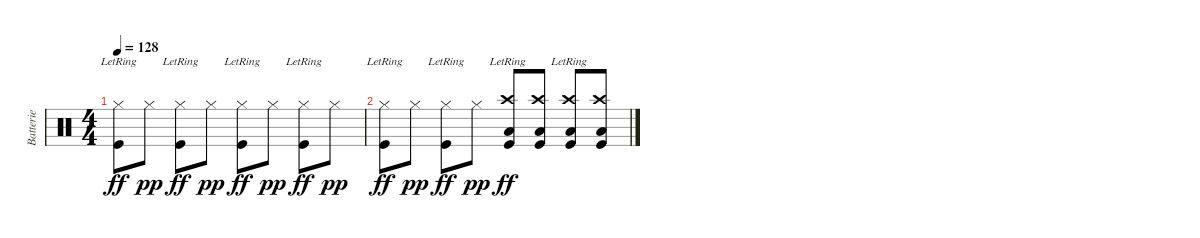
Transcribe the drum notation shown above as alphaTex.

\track ("Batterie" "Batterie") {instrument percussion}
\staff {score}
\articulation defaults
\ts (4 4)
\tempo 128
\clef neutral
\ks c
("Hi-Hat (closed)" "Kick (hit)"{lr}).8{dy ff} "Hi-Hat (closed)".8{dy pp} ("Hi-Hat (closed)" "Kick (hit)"{lr}).8{dy ff} "Hi-Hat (closed)".8{dy pp} ("Hi-Hat (closed)" "Kick (hit)"{lr}).8{dy ff} "Hi-Hat (closed)".8{dy pp} ("Hi-Hat (closed)" "Kick (hit)"{lr}).8{dy ff} "Hi-Hat (closed)".8{dy pp} |
("Hi-Hat (closed)" "Kick (hit)"{lr}).8{dy ff} "Hi-Hat (closed)".8{dy pp} ("Hi-Hat (closed)" "Kick (hit)"{lr}).8{dy ff} "Hi-Hat (closed)".8{dy pp} ("Crash high (hit)" "Low Floor Tom (hit)" "Kick (hit)"{lr}).8{dy ff} ("Crash high (hit)" "Low Floor Tom (hit)" "Kick (hit)").8 ("Crash high (hit)" "Low Floor Tom (hit)" "Kick (hit)"{lr}).8 ("Crash high (hit)" "Low Floor Tom (hit)" "Kick (hit)").8
